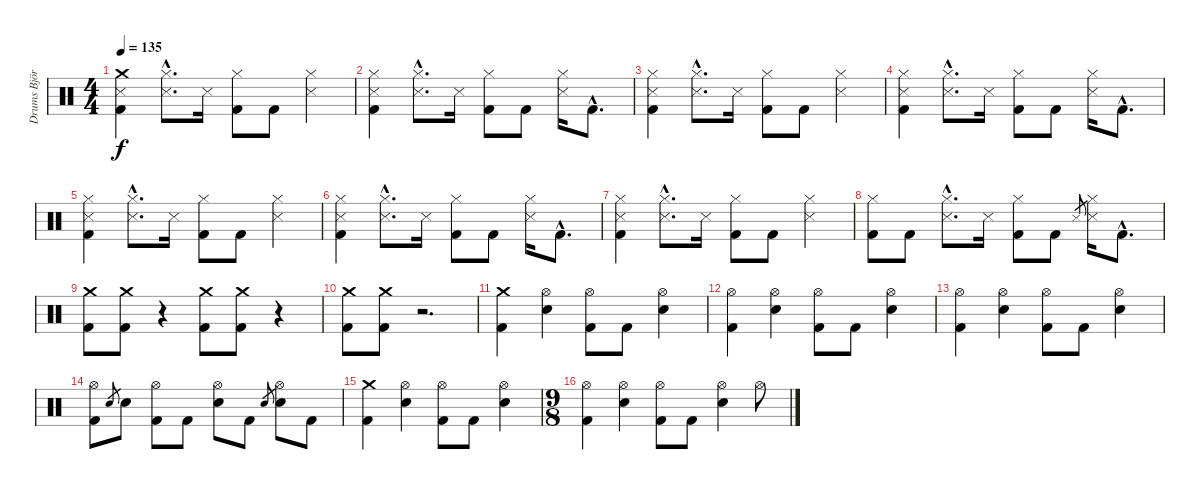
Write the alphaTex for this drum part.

\track ("Drums Björn Fryklund" "Drums Björ") {instrument percussion}
\staff {score}
\articulation defaults
\ts (4 4)
\tempo 135
\clef neutral
\ks c
("Crash medium (hit)" "Snare (side stick) 3" "Kick (hit) 2").4{dy f} ("Hi-Hat (closed)"{hac} "Snare (side stick) 3"{hac}).8{d} "Snare (side stick) 3".16 ("Hi-Hat (closed)" "Kick (hit) 2").8 "Kick (hit) 2".8 ("Hi-Hat (closed)" "Snare (side stick) 3").4 |
("Hi-Hat (closed)" "Snare (side stick) 3" "Kick (hit) 2").4 ("Hi-Hat (closed)"{hac} "Snare (side stick) 3"{hac}).8{d} "Snare (side stick) 3".16 ("Hi-Hat (closed)" "Kick (hit) 2").8 "Kick (hit) 2".8 ("Hi-Hat (closed)" "Snare (side stick) 3").16 "Kick (hit) 2"{hac}.8{d} |
("Hi-Hat (closed)" "Snare (side stick) 3" "Kick (hit) 2").4 ("Hi-Hat (closed)"{hac} "Snare (side stick) 3"{hac}).8{d} "Snare (side stick) 3".16 ("Hi-Hat (closed)" "Kick (hit) 2").8 "Kick (hit) 2".8 ("Hi-Hat (closed)" "Snare (side stick) 3").4 |
("Hi-Hat (closed)" "Snare (side stick) 3" "Kick (hit) 2").4 ("Hi-Hat (closed)"{hac} "Snare (side stick) 3"{hac}).8{d} "Snare (side stick) 3".16 ("Hi-Hat (closed)" "Kick (hit) 2").8 "Kick (hit) 2".8 ("Hi-Hat (closed)" "Snare (side stick) 3").16 "Kick (hit) 2"{hac}.8{d} |
("Hi-Hat (closed)" "Snare (side stick) 3" "Kick (hit) 2").4 ("Hi-Hat (closed)"{hac} "Snare (side stick) 3"{hac}).8{d} "Snare (side stick) 3".16 ("Hi-Hat (closed)" "Kick (hit) 2").8 "Kick (hit) 2".8 ("Hi-Hat (closed)" "Snare (side stick) 3").4 |
("Hi-Hat (closed)" "Snare (side stick) 3" "Kick (hit) 2").4 ("Hi-Hat (closed)"{hac} "Snare (side stick) 3"{hac}).8{d} "Snare (side stick) 3".16 ("Hi-Hat (closed)" "Kick (hit) 2").8 "Kick (hit) 2".8 ("Hi-Hat (closed)" "Snare (side stick) 3").16 "Kick (hit) 2"{hac}.8{d} |
("Hi-Hat (closed)" "Snare (side stick) 3" "Kick (hit) 2").4 ("Hi-Hat (closed)"{hac} "Snare (side stick) 3"{hac}).8{d} "Snare (side stick) 3".16 ("Hi-Hat (closed)" "Kick (hit) 2").8 "Kick (hit) 2".8 ("Hi-Hat (closed)" "Snare (side stick) 3").4 |
("Hi-Hat (closed)" "Kick (hit) 2").8 "Kick (hit) 2".8 ("Hi-Hat (closed)"{hac} "Snare (side stick) 3"{hac}).8{d} "Snare (side stick) 3".16 ("Hi-Hat (closed)" "Kick (hit) 2").8 "Kick (hit) 2".8 "Snare (side stick) 3".8{gr} ("Hi-Hat (closed)" "Snare (side stick) 3").16 "Kick (hit) 2"{hac}.8{d} |
("Crash medium (hit)" "Kick (hit) 2").8 ("Crash medium (hit)" "Kick (hit) 2").8 r.4 ("Crash medium (hit)" "Kick (hit) 2").8 ("Crash medium (hit)" "Kick (hit) 2").8 r.4 |
("Crash medium (hit)" "Kick (hit) 2").8 ("Crash medium (hit)" "Kick (hit) 2").8 r.2{d} |
("Crash medium (hit)" "Kick (hit) 2").4 ("Hi-Hat (open)" "Electric Snare (hit)").4 ("Hi-Hat (open)" "Kick (hit) 2").8 "Kick (hit) 2".8 ("Hi-Hat (open)" "Electric Snare (hit)").4 |
("Hi-Hat (open)" "Kick (hit) 2").4 ("Hi-Hat (open)" "Electric Snare (hit)").4 ("Hi-Hat (open)" "Kick (hit) 2").8 "Kick (hit) 2".8 ("Hi-Hat (open)" "Electric Snare (hit)").4 |
("Hi-Hat (open)" "Kick (hit) 2").4 ("Hi-Hat (open)" "Electric Snare (hit)").4 ("Hi-Hat (open)" "Kick (hit) 2").8 "Kick (hit) 2".8 ("Hi-Hat (open)" "Electric Snare (hit)").4 |
("Hi-Hat (open)" "Kick (hit) 2").8 "Electric Snare (hit)".8{gr} "Electric Snare (hit)".8 ("Hi-Hat (open)" "Kick (hit) 2").8 "Kick (hit) 2".8 ("Hi-Hat (open)" "Electric Snare (hit)").8 "Kick (hit) 2".8 "Electric Snare (hit)".8{gr} ("Hi-Hat (open)" "Electric Snare (hit)").8 "Kick (hit) 2".8 |
("Crash medium (hit)" "Kick (hit) 2").4 ("Hi-Hat (open)" "Electric Snare (hit)").4 ("Hi-Hat (open)" "Kick (hit) 2").8 "Kick (hit) 2".8 ("Hi-Hat (open)" "Electric Snare (hit)").4 |
\ts (9 8)
("Hi-Hat (open)" "Kick (hit) 2").4 ("Hi-Hat (open)" "Electric Snare (hit)").4 ("Hi-Hat (open)" "Kick (hit) 2").8 "Kick (hit) 2".8 ("Hi-Hat (open)" "Electric Snare (hit)").4 "Hi-Hat (open)".8
